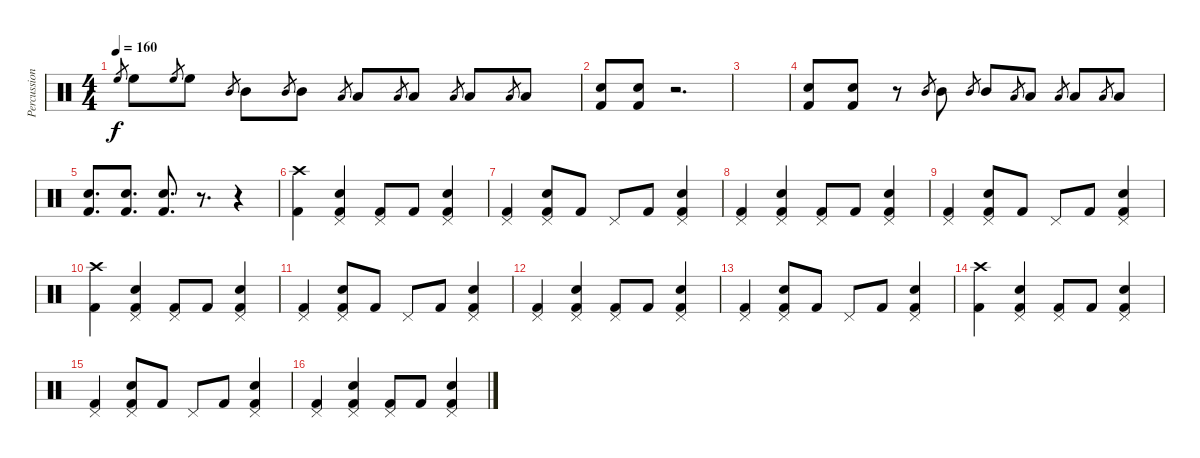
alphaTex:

\track ("Percussion" "Percussion") {instrument percussion}
\staff {score}
\articulation defaults
\ts (4 4)
\tempo 160
\clef neutral
\ks c "High Floor Tom (hit)".8{gr dy f} "High Floor Tom (hit)".8 "High Floor Tom (hit)".8{gr} "High Floor Tom (hit)".8 "Mid Tom (hit)".8{gr} "Mid Tom (hit)".8 "Mid Tom (hit)".8{gr} "Mid Tom (hit)".8 "Low Tom (hit)".8{gr} "Low Tom (hit)".8 "Low Tom (hit)".8{gr} "Low Tom (hit)".8 "Low Floor Tom (hit)".8{gr} "Low Floor Tom (hit)".8 "Low Floor Tom (hit)".8{gr} "Low Floor Tom (hit)".8
|
("Snare (hit) 2" "Kick (hit) 2").8 ("Snare (hit) 2" "Kick (hit) 2").8 r.2{d} |
|
("Snare (hit) 2" "Kick (hit) 2").8 ("Snare (hit) 2" "Kick (hit) 2").8 r.8 "Mid Tom (hit)".8{gr} "Mid Tom (hit)".8 "Mid Tom (hit)".8{gr} "Mid Tom (hit)".8 "Low Tom (hit)".8{gr} "Low Tom (hit)".8 "Low Tom (hit)".8{gr} "Low Tom (hit)".8 "Low Floor Tom (hit)".8{gr} "Low Floor Tom (hit)".8 |
("Snare (hit) 2" "Kick (hit) 2").8{d} ("Snare (hit) 2" "Kick (hit) 2").8{d} ("Snare (hit) 2" "Kick (hit) 2").8{d} r.8{d} r.4 |
("Crash high (hit)" "Kick (hit) 2").4 ("Pedal Hi-Hat (hit)" "Snare (hit) 2" "Kick (hit) 2").4 ("Pedal Hi-Hat (hit)" "Kick (hit) 2").8 "Kick (hit) 2".8 ("Pedal Hi-Hat (hit)" "Snare (hit) 2" "Kick (hit) 2").4 |
("Pedal Hi-Hat (hit)" "Kick (hit) 2").4 ("Pedal Hi-Hat (hit)" "Snare (hit) 2" "Kick (hit) 2").8 "Kick (hit) 2".8 "Pedal Hi-Hat (hit)".8 "Kick (hit) 2".8 ("Pedal Hi-Hat (hit)" "Snare (hit) 2" "Kick (hit) 2").4 |
("Pedal Hi-Hat (hit)" "Kick (hit) 2").4 ("Pedal Hi-Hat (hit)" "Snare (hit) 2" "Kick (hit) 2").4 ("Pedal Hi-Hat (hit)" "Kick (hit) 2").8 "Kick (hit) 2".8 ("Pedal Hi-Hat (hit)" "Snare (hit) 2" "Kick (hit) 2").4 |
("Pedal Hi-Hat (hit)" "Kick (hit) 2").4 ("Pedal Hi-Hat (hit)" "Snare (hit) 2" "Kick (hit) 2").8 "Kick (hit) 2".8 "Pedal Hi-Hat (hit)".8 "Kick (hit) 2".8 ("Pedal Hi-Hat (hit)" "Snare (hit) 2" "Kick (hit) 2").4 |
("Crash high (hit)" "Kick (hit) 2").4 ("Pedal Hi-Hat (hit)" "Snare (hit) 2" "Kick (hit) 2").4 ("Pedal Hi-Hat (hit)" "Kick (hit) 2").8 "Kick (hit) 2".8 ("Pedal Hi-Hat (hit)" "Snare (hit) 2" "Kick (hit) 2").4 |
("Pedal Hi-Hat (hit)" "Kick (hit) 2").4 ("Pedal Hi-Hat (hit)" "Snare (hit) 2" "Kick (hit) 2").8 "Kick (hit) 2".8 "Pedal Hi-Hat (hit)".8 "Kick (hit) 2".8 ("Pedal Hi-Hat (hit)" "Snare (hit) 2" "Kick (hit) 2").4 |
("Pedal Hi-Hat (hit)" "Kick (hit) 2").4 ("Pedal Hi-Hat (hit)" "Snare (hit) 2" "Kick (hit) 2").4 ("Pedal Hi-Hat (hit)" "Kick (hit) 2").8 "Kick (hit) 2".8 ("Pedal Hi-Hat (hit)" "Snare (hit) 2" "Kick (hit) 2").4 |
("Pedal Hi-Hat (hit)" "Kick (hit) 2").4 ("Pedal Hi-Hat (hit)" "Snare (hit) 2" "Kick (hit) 2").8 "Kick (hit) 2".8 "Pedal Hi-Hat (hit)".8 "Kick (hit) 2".8 ("Pedal Hi-Hat (hit)" "Snare (hit) 2" "Kick (hit) 2").4 |
("Crash high (hit)" "Kick (hit) 2").4 ("Pedal Hi-Hat (hit)" "Snare (hit) 2" "Kick (hit) 2").4 ("Pedal Hi-Hat (hit)" "Kick (hit) 2").8 "Kick (hit) 2".8 ("Pedal Hi-Hat (hit)" "Snare (hit) 2" "Kick (hit) 2").4 |
("Pedal Hi-Hat (hit)" "Kick (hit) 2").4 ("Pedal Hi-Hat (hit)" "Snare (hit) 2" "Kick (hit) 2").8 "Kick (hit) 2".8 "Pedal Hi-Hat (hit)".8 "Kick (hit) 2".8 ("Pedal Hi-Hat (hit)" "Snare (hit) 2" "Kick (hit) 2").4 |
("Pedal Hi-Hat (hit)" "Kick (hit) 2").4 ("Pedal Hi-Hat (hit)" "Snare (hit) 2" "Kick (hit) 2").4 ("Pedal Hi-Hat (hit)" "Kick (hit) 2").8 "Kick (hit) 2".8 ("Pedal Hi-Hat (hit)" "Snare (hit) 2" "Kick (hit) 2").4
